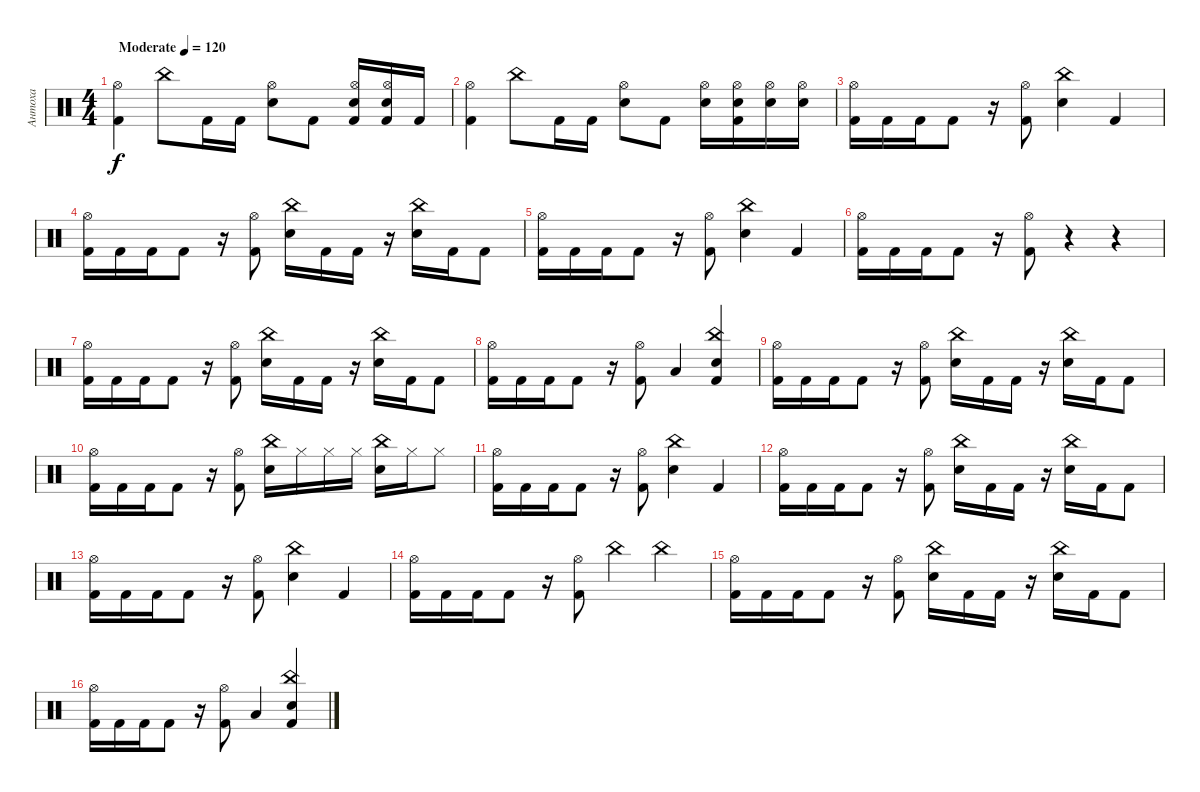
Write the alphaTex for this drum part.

\track ("Антоха" "Антоха") {instrument percussion}
\staff {score}
\articulation defaults
\ts (4 4)
\tempo (120 "Moderate")
\clef neutral
\ks c
("Kick (hit) 2" "Hi-Hat (open)").4{dy f} "China (hit)".8 "Kick (hit) 2".16 "Kick (hit) 2".16 ("Electric Snare (hit)" "Hi-Hat (open)").8 "Kick (hit) 2".8 ("Kick (hit) 2" "Electric Snare (hit)" "Hi-Hat (open)").16 ("Kick (hit) 2" "Electric Snare (hit)" "Hi-Hat (open)").16 "Kick (hit) 2".16 |
("Kick (hit) 2" "Hi-Hat (open)").4 "China (hit)".8 "Kick (hit) 2".16 "Kick (hit) 2".16 ("Electric Snare (hit)" "Hi-Hat (open)").8 "Kick (hit) 2".8 ("Electric Snare (hit)" "Hi-Hat (open)").16 ("Kick (hit) 2" "Electric Snare (hit)" "Hi-Hat (open)").16 ("Electric Snare (hit)" "Hi-Hat (open)").16 ("Electric Snare (hit)" "Hi-Hat (open)").16 |
("Kick (hit) 2" "Hi-Hat (open)").16 "Kick (hit) 2".16 "Kick (hit) 2".16 "Kick (hit) 2".8 r.16 ("Kick (hit) 2" "Hi-Hat (open)").8 ("Electric Snare (hit)" "China (hit)").4 "Kick (hit) 2".4 |
("Kick (hit) 2" "Hi-Hat (open)").16 "Kick (hit) 2".16 "Kick (hit) 2".16 "Kick (hit) 2".8 r.16 ("Kick (hit) 2" "Hi-Hat (open)").8 ("Electric Snare (hit)" "China (hit)").16 "Kick (hit) 2".16 "Kick (hit) 2".16 r.16 ("Electric Snare (hit)" "China (hit)").16 "Kick (hit) 2".16 "Kick (hit) 2".8 |
("Kick (hit) 2" "Hi-Hat (open)").16 "Kick (hit) 2".16 "Kick (hit) 2".16 "Kick (hit) 2".8 r.16 ("Kick (hit) 2" "Hi-Hat (open)").8 ("Electric Snare (hit)" "China (hit)").4 "Kick (hit) 2".4 |
("Kick (hit) 2" "Hi-Hat (open)").16 "Kick (hit) 2".16 "Kick (hit) 2".16 "Kick (hit) 2".8 r.16 ("Kick (hit) 2" "Hi-Hat (open)").8 r.4 r.4 |
("Kick (hit) 2" "Hi-Hat (open)").16 "Kick (hit) 2".16 "Kick (hit) 2".16 "Kick (hit) 2".8 r.16 ("Kick (hit) 2" "Hi-Hat (open)").8 ("Electric Snare (hit)" "China (hit)").16 "Kick (hit) 2".16 "Kick (hit) 2".16 r.16 ("Electric Snare (hit)" "China (hit)").16 "Kick (hit) 2".16 "Kick (hit) 2".8 |
("Kick (hit) 2" "Hi-Hat (open)").16 "Kick (hit) 2".16 "Kick (hit) 2".16 "Kick (hit) 2".8 r.16 ("Kick (hit) 2" "Hi-Hat (open)").8 "Low Floor Tom (hit)".4 ("Kick (hit) 2" "Electric Snare (hit)" "China (hit)").4 |
("Kick (hit) 2" "Hi-Hat (open)").16 "Kick (hit) 2".16 "Kick (hit) 2".16 "Kick (hit) 2".8 r.16 ("Kick (hit) 2" "Hi-Hat (open)").8 ("Electric Snare (hit)" "China (hit)").16 "Kick (hit) 2".16 "Kick (hit) 2".16 r.16 ("Electric Snare (hit)" "China (hit)").16 "Kick (hit) 2".16 "Kick (hit) 2".8 |
("Kick (hit) 2" "Hi-Hat (open)").16 "Kick (hit) 2".16 "Kick (hit) 2".16 "Kick (hit) 2".8 r.16 ("Kick (hit) 2" "Hi-Hat (open)").8 ("Electric Snare (hit)" "China (hit)").16 "Hi-Hat (closed)".16 "Hi-Hat (closed)".16 "Hi-Hat (closed)".16 ("Electric Snare (hit)" "China (hit)").16 "Hi-Hat (closed)".16 "Hi-Hat (closed)".8 |
("Kick (hit) 2" "Hi-Hat (open)").16 "Kick (hit) 2".16 "Kick (hit) 2".16 "Kick (hit) 2".8 r.16 ("Kick (hit) 2" "Hi-Hat (open)").8 ("Electric Snare (hit)" "China (hit)").4 "Kick (hit) 2".4 |
("Kick (hit) 2" "Hi-Hat (open)").16 "Kick (hit) 2".16 "Kick (hit) 2".16 "Kick (hit) 2".8 r.16 ("Kick (hit) 2" "Hi-Hat (open)").8 ("Electric Snare (hit)" "China (hit)").16 "Kick (hit) 2".16 "Kick (hit) 2".16 r.16 ("Electric Snare (hit)" "China (hit)").16 "Kick (hit) 2".16 "Kick (hit) 2".8 |
("Kick (hit) 2" "Hi-Hat (open)").16 "Kick (hit) 2".16 "Kick (hit) 2".16 "Kick (hit) 2".8 r.16 ("Kick (hit) 2" "Hi-Hat (open)").8 ("Electric Snare (hit)" "China (hit)").4 "Kick (hit) 2".4 |
("Kick (hit) 2" "Hi-Hat (open)").16 "Kick (hit) 2".16 "Kick (hit) 2".16 "Kick (hit) 2".8 r.16 ("Kick (hit) 2" "Hi-Hat (open)").8 "China (hit)".4 "China (hit)".4 |
("Kick (hit) 2" "Hi-Hat (open)").16 "Kick (hit) 2".16 "Kick (hit) 2".16 "Kick (hit) 2".8 r.16 ("Kick (hit) 2" "Hi-Hat (open)").8 ("Electric Snare (hit)" "China (hit)").16 "Kick (hit) 2".16 "Kick (hit) 2".16 r.16 ("Electric Snare (hit)" "China (hit)").16 "Kick (hit) 2".16 "Kick (hit) 2".8 |
("Kick (hit) 2" "Hi-Hat (open)").16 "Kick (hit) 2".16 "Kick (hit) 2".16 "Kick (hit) 2".8 r.16 ("Kick (hit) 2" "Hi-Hat (open)").8 "Low Floor Tom (hit)".4 ("Kick (hit) 2" "Electric Snare (hit)" "China (hit)").4
